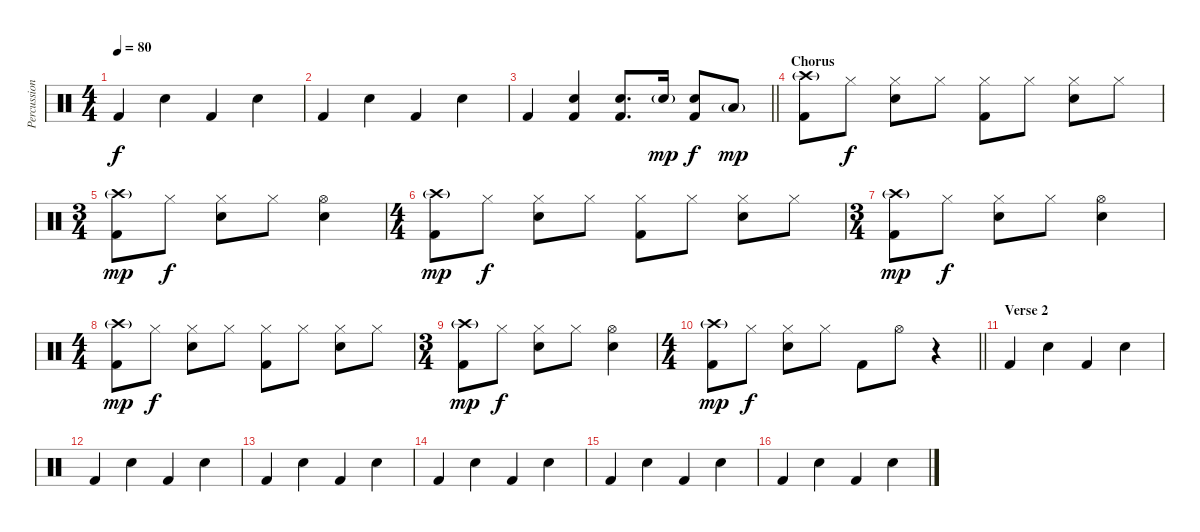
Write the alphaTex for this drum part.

\track ("Percussion" "Percussion") {instrument percussion}
\staff {score}
\articulation defaults
\ts (4 4)
\tempo 80
\clef neutral
\ks c "Kick (hit) 2".4{dy f} "Snare (hit) 2".4 "Kick (hit) 2".4 "Snare (hit) 2".4
|
"Kick (hit) 2".4 "Snare (hit) 2".4 "Kick (hit) 2".4 "Snare (hit) 2".4 |
\barLineRight lightlight "Kick (hit) 2".4
("Snare (hit) 2" "Kick (hit) 2").4 ("Snare (hit) 2" "Kick (hit) 2").8{d} "Snare (hit) 2"{g}.16{dy mp} ("Snare (hit) 2" "Kick (hit) 2").8{dy f} "Low Floor Tom (hit)"{g}.8{dy mp} |
\section ("" "Chorus")
("Crash high (hit)"{g} "Kick (hit) 2").8 "Hi-Hat (closed)".8{dy f} ("Hi-Hat (closed)" "Snare (hit) 2").8 "Hi-Hat (closed)".8 ("Hi-Hat (closed)" "Kick (hit) 2").8 "Hi-Hat (closed)".8 ("Hi-Hat (closed)" "Snare (hit) 2").8 "Hi-Hat (closed)".8 |
\ts (3 4)
("Crash high (hit)"{g} "Kick (hit) 2").8{dy mp} "Hi-Hat (closed)".8{dy f} ("Hi-Hat (closed)" "Snare (hit) 2").8 "Hi-Hat (closed)".8 ("Hi-Hat (open)" "Snare (hit) 2").4 |
\ts (4 4)
("Crash high (hit)"{g} "Kick (hit) 2").8{dy mp} "Hi-Hat (closed)".8{dy f} ("Hi-Hat (closed)" "Snare (hit) 2").8 "Hi-Hat (closed)".8 ("Hi-Hat (closed)" "Kick (hit) 2").8 "Hi-Hat (closed)".8 ("Hi-Hat (closed)" "Snare (hit) 2").8 "Hi-Hat (closed)".8 |
\ts (3 4)
("Crash high (hit)"{g} "Kick (hit) 2").8{dy mp} "Hi-Hat (closed)".8{dy f} ("Hi-Hat (closed)" "Snare (hit) 2").8 "Hi-Hat (closed)".8 ("Hi-Hat (open)" "Snare (hit) 2").4 |
\ts (4 4)
("Crash high (hit)"{g} "Kick (hit) 2").8{dy mp} "Hi-Hat (closed)".8{dy f} ("Hi-Hat (closed)" "Snare (hit) 2").8 "Hi-Hat (closed)".8 ("Hi-Hat (closed)" "Kick (hit) 2").8 "Hi-Hat (closed)".8 ("Hi-Hat (closed)" "Snare (hit) 2").8 "Hi-Hat (closed)".8 |
\ts (3 4)
("Crash high (hit)"{g} "Kick (hit) 2").8{dy mp} "Hi-Hat (closed)".8{dy f} ("Hi-Hat (closed)" "Snare (hit) 2").8 "Hi-Hat (closed)".8 ("Hi-Hat (open)" "Snare (hit) 2").4 |
\ts (4 4)
\barLineRight lightlight
("Crash high (hit)"{g} "Kick (hit) 2").8{dy mp} "Hi-Hat (closed)".8{dy f} ("Hi-Hat (closed)" "Snare (hit) 2").8 "Hi-Hat (closed)".8 "Kick (hit) 2".8 "Hi-Hat (open)".8 r.4 |
\section ("" "Verse 2")
"Kick (hit) 2".4 "Snare (hit) 2".4 "Kick (hit) 2".4 "Snare (hit) 2".4 |
"Kick (hit) 2".4 "Snare (hit) 2".4 "Kick (hit) 2".4 "Snare (hit) 2".4 |
"Kick (hit) 2".4 "Snare (hit) 2".4 "Kick (hit) 2".4 "Snare (hit) 2".4 |
"Kick (hit) 2".4 "Snare (hit) 2".4 "Kick (hit) 2".4 "Snare (hit) 2".4 |
"Kick (hit) 2".4 "Snare (hit) 2".4 "Kick (hit) 2".4 "Snare (hit) 2".4 |
"Kick (hit) 2".4 "Snare (hit) 2".4 "Kick (hit) 2".4 "Snare (hit) 2".4
